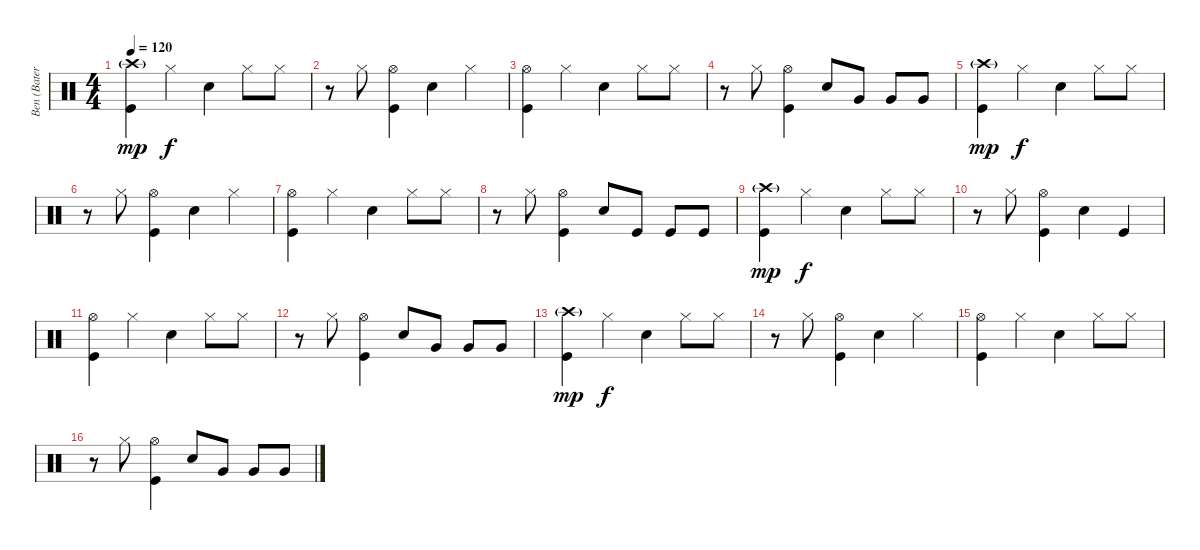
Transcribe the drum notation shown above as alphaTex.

\track ("Ben (Bateria)" "Ben (Bater") {instrument percussion}
\staff {score}
\articulation defaults
\ts (4 4)
\tempo 120
\clef neutral
\ks c
("Kick (hit)" "Crash high (hit)"{g}).4{dy mp} "Hi-Hat (closed)".4{dy f} "Snare (hit) 2".4 "Hi-Hat (closed)".8 "Hi-Hat (closed)".8 |
r.8 "Hi-Hat (closed)".8 ("Kick (hit)" "Hi-Hat (open)").4 "Snare (hit) 2".4 "Hi-Hat (closed)".4 |
("Kick (hit)" "Hi-Hat (open)").4 "Hi-Hat (closed)".4 "Snare (hit) 2".4 "Hi-Hat (closed)".8 "Hi-Hat (closed)".8 |
r.8 "Hi-Hat (closed)".8 ("Kick (hit)" "Hi-Hat (open)").4 "Snare (hit) 2".8 "Very Low Tom (hit)".8 "Very Low Tom (hit)".8 "Very Low Tom (hit)".8 |
("Kick (hit)" "Crash high (hit)"{g}).4{dy mp} "Hi-Hat (closed)".4{dy f} "Snare (hit) 2".4 "Hi-Hat (closed)".8 "Hi-Hat (closed)".8 |
r.8 "Hi-Hat (closed)".8 ("Kick (hit)" "Hi-Hat (open)").4 "Snare (hit) 2".4 "Hi-Hat (closed)".4 |
("Kick (hit)" "Hi-Hat (open)").4 "Hi-Hat (closed)".4 "Snare (hit) 2".4 "Hi-Hat (closed)".8 "Hi-Hat (closed)".8 |
r.8 "Hi-Hat (closed)".8 ("Kick (hit)" "Hi-Hat (open)").4 "Snare (hit) 2".8 "Kick (hit)".8 "Kick (hit)".8 "Kick (hit)".8 |
("Kick (hit)" "Crash high (hit)"{g}).4{dy mp} "Hi-Hat (closed)".4{dy f} "Snare (hit) 2".4 "Hi-Hat (closed)".8 "Hi-Hat (closed)".8 |
r.8 "Hi-Hat (closed)".8 ("Kick (hit)" "Hi-Hat (open)").4 "Snare (hit) 2".4 "Kick (hit)".4 |
("Kick (hit)" "Hi-Hat (open)").4 "Hi-Hat (closed)".4 "Snare (hit) 2".4 "Hi-Hat (closed)".8 "Hi-Hat (closed)".8 |
r.8 "Hi-Hat (closed)".8 ("Kick (hit)" "Hi-Hat (open)").4 "Snare (hit) 2".8 "Very Low Tom (hit)".8 "Very Low Tom (hit)".8 "Very Low Tom (hit)".8 |
("Kick (hit)" "Crash high (hit)"{g}).4{dy mp} "Hi-Hat (closed)".4{dy f} "Snare (hit) 2".4 "Hi-Hat (closed)".8 "Hi-Hat (closed)".8 |
r.8 "Hi-Hat (closed)".8 ("Kick (hit)" "Hi-Hat (open)").4 "Snare (hit) 2".4 "Hi-Hat (closed)".4 |
("Kick (hit)" "Hi-Hat (open)").4 "Hi-Hat (closed)".4 "Snare (hit) 2".4 "Hi-Hat (closed)".8 "Hi-Hat (closed)".8 |
r.8 "Hi-Hat (closed)".8 ("Kick (hit)" "Hi-Hat (open)").4 "Snare (hit) 2".8 "Very Low Tom (hit)".8 "Very Low Tom (hit)".8 "Very Low Tom (hit)".8
